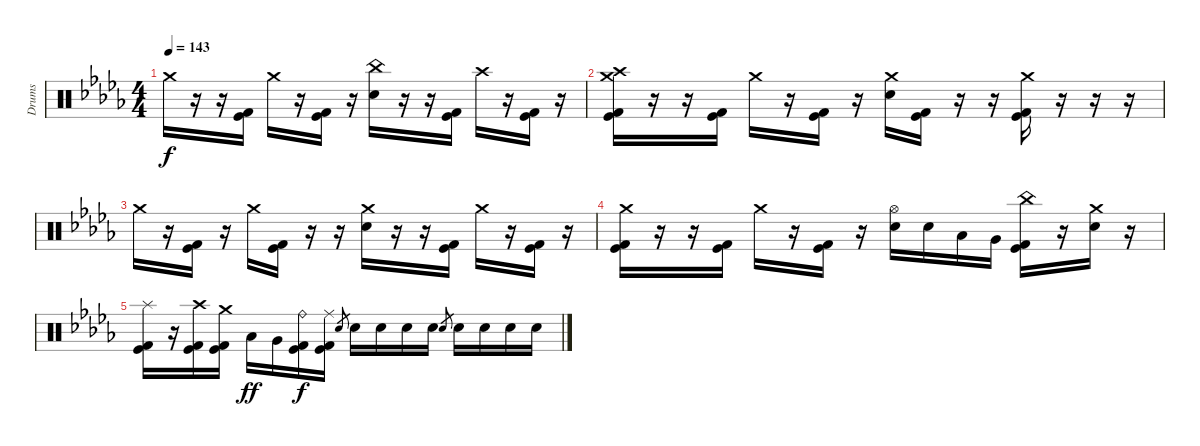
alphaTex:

\track ("Drums" "Drums") {instrument percussion}
\staff {score}
\articulation defaults
\ts (4 4)
\tempo 143
\clef neutral
\ks db "Crash medium (hit)".16{dy f}
r.16 r.16 ("Kick (hit)" "Kick (hit) 2").16 "Crash medium (hit)".16 r.16 ("Kick (hit)" "Kick (hit) 2").16 r.16 ("China (hit)" "Electric Snare (hit)").16 r.16 r.16 ("Kick (hit)" "Kick (hit) 2").16 "Crash high (hit)".16 r.16 ("Kick (hit)" "Kick (hit) 2").16 r.16 |
("Crash medium (hit)" "Crash high (hit)" "Kick (hit)" "Kick (hit) 2").16{volume 0} r.16 r.16 ("Kick (hit)" "Kick (hit) 2").16 "Crash medium (hit)".16 r.16 ("Kick (hit)" "Kick (hit) 2").16 r.16 ("Crash medium (hit)" "Electric Snare (hit)").16 ("Kick (hit)" "Kick (hit) 2").16 r.16 r.16 ("Crash medium (hit)" "Kick (hit)" "Kick (hit) 2").16 r.16 r.16 r.16 |
"Crash medium (hit)".16 r.16 ("Kick (hit)" "Kick (hit) 2").16 r.16 "Crash medium (hit)".16 ("Kick (hit)" "Kick (hit) 2").16 r.16 r.16 ("Crash medium (hit)" "Electric Snare (hit)").16 r.16 r.16 ("Kick (hit)" "Kick (hit) 2").16 "Crash medium (hit)".16 r.16 ("Kick (hit)" "Kick (hit) 2").16 r.16 |
("Crash medium (hit)" "Kick (hit)" "Kick (hit) 2").16 r.16 r.16 ("Kick (hit)" "Kick (hit) 2").16 "Crash medium (hit)".16 r.16 ("Kick (hit)" "Kick (hit) 2").16 r.16 ("Hi-Hat (open)" "Electric Snare (hit)").16 "Electric Snare (hit)".16 "Low Tom (hit)".16 "Very Low Tom (hit)".16 ("China (hit)" "Kick (hit)" "Kick (hit) 2").16 r.16 ("Crash medium (hit)" "Electric Snare (hit)").16 r.16 |
("Splash (hit)" "Kick (hit)" "Kick (hit) 2").16 r.16 ("Crash high (hit)" "Kick (hit)" "Kick (hit) 2").16 ("Crash medium (hit)" "Kick (hit)" "Kick (hit) 2").16 "Low Tom (hit)".16{dy ff} "Very Low Tom (hit)".16 ("Ride (bell)" "Kick (hit)" "Kick (hit) 2").16{dy f} ("Ride (middle)" "Kick (hit)" "Kick (hit) 2").16 "Electric Snare (hit)".8{gr} "Electric Snare (hit)".16 "Electric Snare (hit)".16 "Electric Snare (hit)".16 "Electric Snare (hit)".16 "Electric Snare (hit)".8{gr} "Electric Snare (hit)".16 "Electric Snare (hit)".16 "Electric Snare (hit)".16 "Electric Snare (hit)".16
